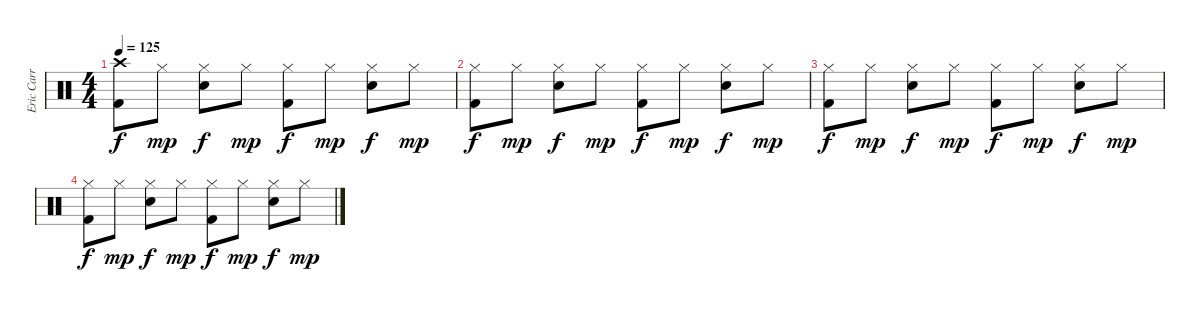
\track ("Eric Carr" "Eric Carr") {instrument percussion}
\staff {score}
\articulation defaults
\ts (4 4)
\tempo 125
\clef neutral
\ks c
("Crash high (hit)" "Kick (hit) 2").8{dy f} "Hi-Hat (closed)".8{dy mp} ("Hi-Hat (closed)" "Snare (hit) 2").8{dy f} "Hi-Hat (closed)".8{dy mp} ("Hi-Hat (closed)" "Kick (hit) 2").8{dy f} "Hi-Hat (closed)".8{dy mp} ("Hi-Hat (closed)" "Snare (hit) 2").8{dy f} "Hi-Hat (closed)".8{dy mp} |
("Hi-Hat (closed)" "Kick (hit) 2").8{dy f} "Hi-Hat (closed)".8{dy mp} ("Hi-Hat (closed)" "Snare (hit) 2").8{dy f} "Hi-Hat (closed)".8{dy mp} ("Hi-Hat (closed)" "Kick (hit) 2").8{dy f} "Hi-Hat (closed)".8{dy mp} ("Hi-Hat (closed)" "Snare (hit) 2").8{dy f} "Hi-Hat (closed)".8{dy mp} |
("Hi-Hat (closed)" "Kick (hit) 2").8{dy f} "Hi-Hat (closed)".8{dy mp} ("Hi-Hat (closed)" "Snare (hit) 2").8{dy f} "Hi-Hat (closed)".8{dy mp} ("Hi-Hat (closed)" "Kick (hit) 2").8{dy f} "Hi-Hat (closed)".8{dy mp} ("Hi-Hat (closed)" "Snare (hit) 2").8{dy f} "Hi-Hat (closed)".8{dy mp} |
("Hi-Hat (closed)" "Kick (hit) 2").8{dy f} "Hi-Hat (closed)".8{dy mp} ("Hi-Hat (closed)" "Snare (hit) 2").8{dy f} "Hi-Hat (closed)".8{dy mp} ("Hi-Hat (closed)" "Kick (hit) 2").8{dy f} "Hi-Hat (closed)".8{dy mp} ("Hi-Hat (closed)" "Snare (hit) 2").8{dy f} "Hi-Hat (closed)".8{dy mp}
